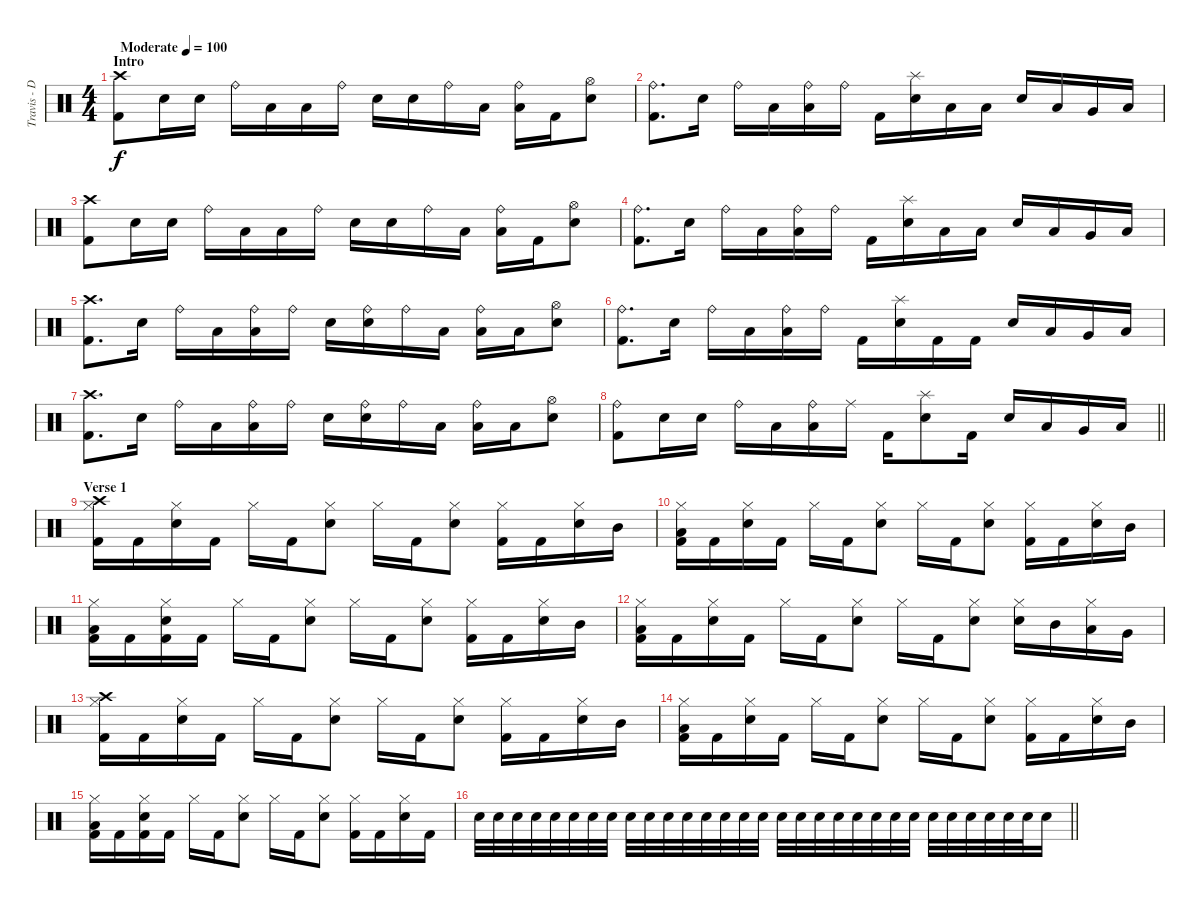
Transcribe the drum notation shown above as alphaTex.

\track ("Travis - Drums" "Travis - D") {instrument percussion}
\staff {score}
\articulation defaults
\ts (4 4)
\section ("" "Intro")
\tempo (100 "Moderate")
\clef neutral
\ks c
("Crash high (hit)" "Kick (hit) 2").8{dy f volume 8} "Electric Snare (hit)".16 "Electric Snare (hit)".16 "Ride (bell)".16 "Low Tom (hit)".16 "Low Tom (hit)".16 "Ride (bell)".16 "Electric Snare (hit)".16 "Electric Snare (hit)".16 "Ride (bell)".16 "Low Tom (hit)".16 ("Ride (bell)" "Low Tom (hit)").16 "Kick (hit) 2".16 ("Hi-Hat (open)" "Electric Snare (hit)").8 |
("Ride (bell)" "Kick (hit) 2").8{d} "Electric Snare (hit)".16 "Ride (bell)".16 "Low Tom (hit)".16 ("Ride (bell)" "Low Tom (hit)").16 "Ride (bell)".16 "Kick (hit) 2".16 ("Splash (hit)" "Electric Snare (hit)").16 "Low Tom (hit)".16 "Low Tom (hit)".16 "Electric Snare (hit)".16 "Low Tom (hit)".16 "Very Low Tom (hit)".16 "Low Floor Tom (hit)".16 |
("Crash high (hit)" "Kick (hit) 2").8 "Electric Snare (hit)".16 "Electric Snare (hit)".16 "Ride (bell)".16 "Low Tom (hit)".16 "Low Tom (hit)".16 "Ride (bell)".16 "Electric Snare (hit)".16 "Electric Snare (hit)".16 "Ride (bell)".16 "Low Tom (hit)".16 ("Ride (bell)" "Low Tom (hit)").16 "Kick (hit) 2".16 ("Hi-Hat (open)" "Electric Snare (hit)").8 |
("Ride (bell)" "Kick (hit) 2").8{d} "Electric Snare (hit)".16 "Ride (bell)".16 "Low Tom (hit)".16 ("Ride (bell)" "Low Tom (hit)").16 "Ride (bell)".16 "Kick (hit) 2".16 ("Splash (hit)" "Electric Snare (hit)").16 "Low Tom (hit)".16 "Low Tom (hit)".16 "Electric Snare (hit)".16 "Low Tom (hit)".16 "Very Low Tom (hit)".16 "Low Floor Tom (hit)".16 |
("Crash high (hit)" "Kick (hit) 2").8{d volume 13} "Electric Snare (hit)".16 "Ride (bell)".16 "Low Tom (hit)".16 ("Ride (bell)" "Low Tom (hit)").16 "Ride (bell)".16 "Electric Snare (hit)".16 ("Ride (bell)" "Electric Snare (hit)").16 "Ride (bell)".16 "Low Tom (hit)".16 ("Ride (bell)" "Low Tom (hit)").16 "Low Tom (hit)".16 ("Hi-Hat (open)" "Electric Snare (hit)").8 |
("Ride (bell)" "Kick (hit) 2").8{d} "Electric Snare (hit)".16 "Ride (bell)".16 "Low Tom (hit)".16 ("Ride (bell)" "Low Tom (hit)").16 "Ride (bell)".16 "Kick (hit) 2".16 ("Splash (hit)" "Electric Snare (hit)").16 "Kick (hit) 2".16 "Kick (hit) 2".16 "Electric Snare (hit)".16 "Low Tom (hit)".16 "Very Low Tom (hit)".16 "Low Floor Tom (hit)".16 |
("Crash high (hit)" "Kick (hit) 2").8{d} "Electric Snare (hit)".16 "Ride (bell)".16 "Low Tom (hit)".16 ("Ride (bell)" "Low Tom (hit)").16 "Ride (bell)".16 "Electric Snare (hit)".16 ("Ride (bell)" "Electric Snare (hit)").16 "Ride (bell)".16 "Low Tom (hit)".16 ("Ride (bell)" "Low Tom (hit)").16 "Low Tom (hit)".16 ("Hi-Hat (open)" "Electric Snare (hit)").8 |
\barLineRight lightlight
("Ride (bell)" "Kick (hit) 2").8 "Electric Snare (hit)".16 "Electric Snare (hit)".16 "Ride (bell)".16 "Low Tom (hit)".16 ("Ride (bell)" "Low Tom (hit)").16 "Ride (middle)".16 "Kick (hit) 2".16 ("Splash (hit)" "Electric Snare (hit)").8 "Kick (hit) 2".16 "Electric Snare (hit)".16 "Low Tom (hit)".16 "Very Low Tom (hit)".16 "Low Floor Tom (hit)".16 |
\section ("" "Verse 1")
("Crash high (hit)" "Hi-Hat (closed)" "Kick (hit) 2").16 "Kick (hit) 2".16 ("Hi-Hat (closed)" "Electric Snare (hit)").16 "Kick (hit) 2".16 "Hi-Hat (closed)".16 "Kick (hit) 2".16 ("Hi-Hat (closed)" "Electric Snare (hit)").8 "Hi-Hat (closed)".16 "Kick (hit) 2".16 ("Hi-Hat (closed)" "Electric Snare (hit)").8 ("Hi-Hat (closed)" "Kick (hit) 2").16 "Kick (hit) 2".16 ("Hi-Hat (closed)" "Electric Snare (hit)").16 "Mid Tom (hit)".16 |
("Hi-Hat (closed)" "Low Tom (hit)" "Kick (hit) 2").16 "Kick (hit) 2".16 ("Hi-Hat (closed)" "Electric Snare (hit)").16 "Kick (hit) 2".16 "Hi-Hat (closed)".16 "Kick (hit) 2".16 ("Hi-Hat (closed)" "Electric Snare (hit)").8 "Hi-Hat (closed)".16 "Kick (hit) 2".16 ("Hi-Hat (closed)" "Electric Snare (hit)").8 ("Hi-Hat (closed)" "Kick (hit) 2").16 "Kick (hit) 2".16 ("Hi-Hat (closed)" "Electric Snare (hit)").16 "Mid Tom (hit)".16 |
("Hi-Hat (closed)" "Low Tom (hit)" "Kick (hit) 2").16 "Kick (hit) 2".16 ("Hi-Hat (closed)" "Electric Snare (hit)" "Kick (hit) 2").16 "Kick (hit) 2".16 "Hi-Hat (closed)".16 "Kick (hit) 2".16 ("Hi-Hat (closed)" "Electric Snare (hit)").8 "Hi-Hat (closed)".16 "Kick (hit) 2".16 ("Hi-Hat (closed)" "Electric Snare (hit)").8 ("Hi-Hat (closed)" "Kick (hit) 2").16 "Kick (hit) 2".16 ("Hi-Hat (closed)" "Electric Snare (hit)").16 "Mid Tom (hit)".16 |
("Hi-Hat (closed)" "Low Tom (hit)" "Kick (hit) 2").16 "Kick (hit) 2".16 ("Hi-Hat (closed)" "Electric Snare (hit)").16 "Kick (hit) 2".16 "Hi-Hat (closed)".16 "Kick (hit) 2".16 ("Hi-Hat (closed)" "Electric Snare (hit)").8 "Hi-Hat (closed)".16 "Kick (hit) 2".16 ("Hi-Hat (closed)" "Electric Snare (hit)").8 ("Hi-Hat (closed)" "Electric Snare (hit)").16 "Mid Tom (hit)".16 ("Hi-Hat (closed)" "Low Tom (hit)").16 "Very Low Tom (hit)".16 |
("Crash high (hit)" "Hi-Hat (closed)" "Kick (hit) 2").16 "Kick (hit) 2".16 ("Hi-Hat (closed)" "Electric Snare (hit)").16 "Kick (hit) 2".16 "Hi-Hat (closed)".16 "Kick (hit) 2".16 ("Hi-Hat (closed)" "Electric Snare (hit)").8 "Hi-Hat (closed)".16 "Kick (hit) 2".16 ("Hi-Hat (closed)" "Electric Snare (hit)").8 ("Hi-Hat (closed)" "Kick (hit) 2").16 "Kick (hit) 2".16 ("Hi-Hat (closed)" "Electric Snare (hit)").16 "Mid Tom (hit)".16 |
("Hi-Hat (closed)" "Low Tom (hit)" "Kick (hit) 2").16 "Kick (hit) 2".16 ("Hi-Hat (closed)" "Electric Snare (hit)").16 "Kick (hit) 2".16 "Hi-Hat (closed)".16 "Kick (hit) 2".16 ("Hi-Hat (closed)" "Electric Snare (hit)").8 "Hi-Hat (closed)".16 "Kick (hit) 2".16 ("Hi-Hat (closed)" "Electric Snare (hit)").8 ("Hi-Hat (closed)" "Kick (hit) 2").16 "Kick (hit) 2".16 ("Hi-Hat (closed)" "Electric Snare (hit)").16 "Mid Tom (hit)".16 |
("Hi-Hat (closed)" "Low Tom (hit)" "Kick (hit) 2").16 "Kick (hit) 2".16 ("Hi-Hat (closed)" "Electric Snare (hit)" "Kick (hit) 2").16 "Kick (hit) 2".16 "Hi-Hat (closed)".16 "Kick (hit) 2".16 ("Hi-Hat (closed)" "Electric Snare (hit)").8 "Hi-Hat (closed)".16 "Kick (hit) 2".16 ("Hi-Hat (closed)" "Electric Snare (hit)").8 ("Hi-Hat (closed)" "Kick (hit) 2").16 "Kick (hit) 2".16 ("Hi-Hat (closed)" "Electric Snare (hit)").16 "Kick (hit) 2".16 |
\barLineRight lightlight "Electric Snare (hit)".32 "Electric Snare (hit)".32 "Electric Snare (hit)".32 "Electric Snare (hit)".32 "Electric Snare (hit)".32 "Electric Snare (hit)".32 "Electric Snare (hit)".32 "Electric Snare (hit)".32 "Electric Snare (hit)".32 "Electric Snare (hit)".32 "Electric Snare (hit)".32 "Electric Snare (hit)".32 "Electric Snare (hit)".32 "Electric Snare (hit)".32 "Electric Snare (hit)".32 "Electric Snare (hit)".32 "Electric Snare (hit)".32 "Electric Snare (hit)".32 "Electric Snare (hit)".32 "Electric Snare (hit)".32 "Electric Snare (hit)".32 "Electric Snare (hit)".32 "Electric Snare (hit)".32 "Electric Snare (hit)".32 "Electric Snare (hit)".32 "Electric Snare (hit)".32 "Electric Snare (hit)".32 "Electric Snare (hit)".32 "Electric Snare (hit)".32 "Electric Snare (hit)".32 "Electric Snare (hit)".16
